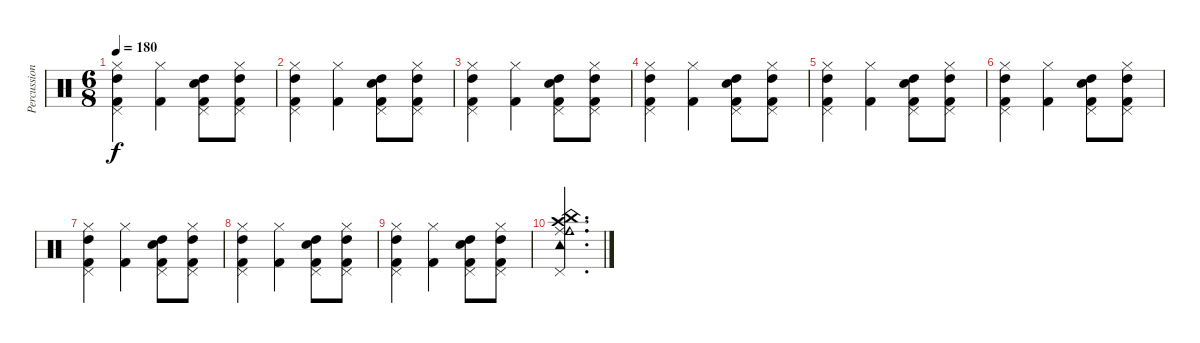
\track ("Percussion" "Percussion") {instrument percussion}
\staff {score}
\articulation defaults
\ts (6 8)
\tempo 180
\clef neutral
\ks c
("Kick (hit) 2" "High Tom (hit)" "Pedal Hi-Hat (hit)" "Hi-Hat (closed)").4{dy f} ("Kick (hit) 2" "Hi-Hat (closed)").4 ("Kick (hit) 2" "High Tom (hit)" "Pedal Hi-Hat (hit)" "Snare (hit)").8 ("Kick (hit) 2" "High Tom (hit)" "Pedal Hi-Hat (hit)" "Hi-Hat (closed)").8 |
("Kick (hit) 2" "High Tom (hit)" "Pedal Hi-Hat (hit)" "Hi-Hat (closed)").4 ("Kick (hit) 2" "Hi-Hat (closed)").4 ("Kick (hit) 2" "High Tom (hit)" "Pedal Hi-Hat (hit)" "Snare (hit)").8 ("Kick (hit) 2" "High Tom (hit)" "Pedal Hi-Hat (hit)" "Hi-Hat (closed)").8 |
("Kick (hit) 2" "High Tom (hit)" "Pedal Hi-Hat (hit)" "Hi-Hat (closed)").4 ("Kick (hit) 2" "Hi-Hat (closed)").4 ("Kick (hit) 2" "High Tom (hit)" "Pedal Hi-Hat (hit)" "Snare (hit)").8 ("Kick (hit) 2" "High Tom (hit)" "Pedal Hi-Hat (hit)" "Hi-Hat (closed)").8 |
("Kick (hit) 2" "High Tom (hit)" "Pedal Hi-Hat (hit)" "Hi-Hat (closed)").4 ("Kick (hit) 2" "Hi-Hat (closed)").4 ("Kick (hit) 2" "High Tom (hit)" "Pedal Hi-Hat (hit)" "Snare (hit)").8 ("Kick (hit) 2" "High Tom (hit)" "Pedal Hi-Hat (hit)" "Hi-Hat (closed)").8 |
("Kick (hit) 2" "High Tom (hit)" "Pedal Hi-Hat (hit)" "Hi-Hat (closed)").4 ("Kick (hit) 2" "Hi-Hat (closed)").4 ("Kick (hit) 2" "High Tom (hit)" "Pedal Hi-Hat (hit)" "Snare (hit)").8 ("Kick (hit) 2" "High Tom (hit)" "Pedal Hi-Hat (hit)" "Hi-Hat (closed)").8 |
("Kick (hit) 2" "High Tom (hit)" "Pedal Hi-Hat (hit)" "Hi-Hat (closed)").4 ("Kick (hit) 2" "Hi-Hat (closed)").4 ("Kick (hit) 2" "High Tom (hit)" "Pedal Hi-Hat (hit)" "Snare (hit)").8 ("Kick (hit) 2" "High Tom (hit)" "Pedal Hi-Hat (hit)" "Hi-Hat (closed)").8 |
("Kick (hit) 2" "High Tom (hit)" "Pedal Hi-Hat (hit)" "Hi-Hat (closed)").4 ("Kick (hit) 2" "Hi-Hat (closed)").4 ("Kick (hit) 2" "High Tom (hit)" "Pedal Hi-Hat (hit)" "Snare (hit)").8 ("Kick (hit) 2" "High Tom (hit)" "Pedal Hi-Hat (hit)" "Hi-Hat (closed)").8 |
("Kick (hit) 2" "High Tom (hit)" "Pedal Hi-Hat (hit)" "Hi-Hat (closed)").4 ("Kick (hit) 2" "Hi-Hat (closed)").4 ("Kick (hit) 2" "High Tom (hit)" "Pedal Hi-Hat (hit)" "Snare (hit)").8 ("Kick (hit) 2" "High Tom (hit)" "Pedal Hi-Hat (hit)" "Hi-Hat (closed)").8 |
("Kick (hit) 2" "High Tom (hit)" "Pedal Hi-Hat (hit)" "Hi-Hat (closed)").4 ("Kick (hit) 2" "Hi-Hat (closed)").4 ("Kick (hit) 2" "High Tom (hit)" "Pedal Hi-Hat (hit)" "Snare (hit)").8 ("Kick (hit) 2" "High Tom (hit)" "Pedal Hi-Hat (hit)" "Hi-Hat (closed)").8 |
("Ride (middle)" "Crash high (hit)" "China (hit)" "Cowbell medium (hit)" "Tambourine (hit)" "Pedal Hi-Hat (hit)").2{d}
